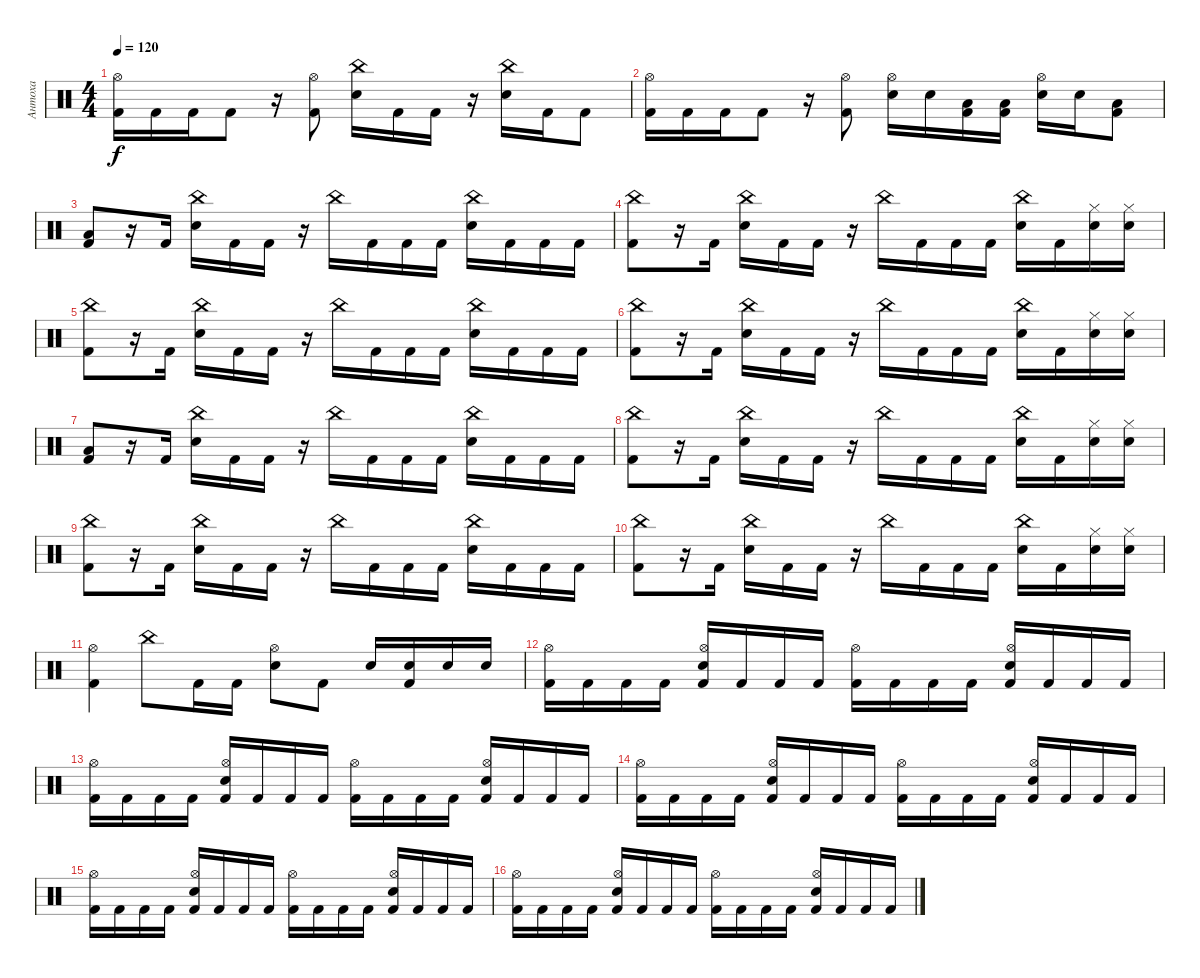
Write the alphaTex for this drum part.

\track ("Антоха" "Антоха") {instrument percussion}
\staff {score}
\articulation defaults
\ts (4 4)
\tempo 120
\clef neutral
\ks c
("Kick (hit) 2" "Hi-Hat (open)").16{dy f} "Kick (hit) 2".16 "Kick (hit) 2".16 "Kick (hit) 2".8 r.16 ("Kick (hit) 2" "Hi-Hat (open)").8 ("Electric Snare (hit)" "China (hit)").16 "Kick (hit) 2".16 "Kick (hit) 2".16 r.16 ("Electric Snare (hit)" "China (hit)").16 "Kick (hit) 2".16 "Kick (hit) 2".8 |
("Kick (hit) 2" "Hi-Hat (open)").16 "Kick (hit) 2".16 "Kick (hit) 2".16 "Kick (hit) 2".8 r.16 ("Kick (hit) 2" "Hi-Hat (open)").8 ("Electric Snare (hit)" "Hi-Hat (open)").16 "Electric Snare (hit)".16 ("Kick (hit) 2" "Low Floor Tom (hit)").16 ("Kick (hit) 2" "Low Floor Tom (hit)").16 ("Electric Snare (hit)" "Hi-Hat (open)").16 "Electric Snare (hit)".16 ("Kick (hit) 2" "Low Floor Tom (hit)").8 |
("Kick (hit) 2" "Low Floor Tom (hit)").8 r.16 "Kick (hit) 2".16 ("Electric Snare (hit)" "China (hit)").16 "Kick (hit) 2".16 "Kick (hit) 2".16 r.16 "China (hit)".16 "Kick (hit) 2".16 "Kick (hit) 2".16 "Kick (hit) 2".16 ("Electric Snare (hit)" "China (hit)").16 "Kick (hit) 2".16 "Kick (hit) 2".16 "Kick (hit) 2".16 |
("Kick (hit) 2" "China (hit)").8 r.16 "Kick (hit) 2".16 ("Electric Snare (hit)" "China (hit)").16 "Kick (hit) 2".16 "Kick (hit) 2".16 r.16 "China (hit)".16 "Kick (hit) 2".16 "Kick (hit) 2".16 "Kick (hit) 2".16 ("Electric Snare (hit)" "China (hit)").16 "Kick (hit) 2".16 ("Electric Snare (hit)" "Hi-Hat (closed)").16 ("Electric Snare (hit)" "Hi-Hat (closed)").16 |
("Kick (hit) 2" "China (hit)").8 r.16 "Kick (hit) 2".16 ("Electric Snare (hit)" "China (hit)").16 "Kick (hit) 2".16 "Kick (hit) 2".16 r.16 "China (hit)".16 "Kick (hit) 2".16 "Kick (hit) 2".16 "Kick (hit) 2".16 ("Electric Snare (hit)" "China (hit)").16 "Kick (hit) 2".16 "Kick (hit) 2".16 "Kick (hit) 2".16 |
("Kick (hit) 2" "China (hit)").8 r.16 "Kick (hit) 2".16 ("Electric Snare (hit)" "China (hit)").16 "Kick (hit) 2".16 "Kick (hit) 2".16 r.16 "China (hit)".16 "Kick (hit) 2".16 "Kick (hit) 2".16 "Kick (hit) 2".16 ("Electric Snare (hit)" "China (hit)").16 "Kick (hit) 2".16 ("Electric Snare (hit)" "Hi-Hat (closed)").16 ("Electric Snare (hit)" "Hi-Hat (closed)").16 |
("Kick (hit) 2" "Low Floor Tom (hit)").8 r.16 "Kick (hit) 2".16 ("Electric Snare (hit)" "China (hit)").16 "Kick (hit) 2".16 "Kick (hit) 2".16 r.16 "China (hit)".16 "Kick (hit) 2".16 "Kick (hit) 2".16 "Kick (hit) 2".16 ("Electric Snare (hit)" "China (hit)").16 "Kick (hit) 2".16 "Kick (hit) 2".16 "Kick (hit) 2".16 |
("Kick (hit) 2" "China (hit)").8 r.16 "Kick (hit) 2".16 ("Electric Snare (hit)" "China (hit)").16 "Kick (hit) 2".16 "Kick (hit) 2".16 r.16 "China (hit)".16 "Kick (hit) 2".16 "Kick (hit) 2".16 "Kick (hit) 2".16 ("Electric Snare (hit)" "China (hit)").16 "Kick (hit) 2".16 ("Electric Snare (hit)" "Hi-Hat (closed)").16 ("Electric Snare (hit)" "Hi-Hat (closed)").16 |
("Kick (hit) 2" "China (hit)").8 r.16 "Kick (hit) 2".16 ("Electric Snare (hit)" "China (hit)").16 "Kick (hit) 2".16 "Kick (hit) 2".16 r.16 "China (hit)".16 "Kick (hit) 2".16 "Kick (hit) 2".16 "Kick (hit) 2".16 ("Electric Snare (hit)" "China (hit)").16 "Kick (hit) 2".16 "Kick (hit) 2".16 "Kick (hit) 2".16 |
("Kick (hit) 2" "China (hit)").8 r.16 "Kick (hit) 2".16 ("Electric Snare (hit)" "China (hit)").16 "Kick (hit) 2".16 "Kick (hit) 2".16 r.16 "China (hit)".16 "Kick (hit) 2".16 "Kick (hit) 2".16 "Kick (hit) 2".16 ("Electric Snare (hit)" "China (hit)").16 "Kick (hit) 2".16 ("Electric Snare (hit)" "Hi-Hat (closed)").16 ("Electric Snare (hit)" "Hi-Hat (closed)").16 |
("Kick (hit) 2" "Hi-Hat (open)").4 "China (hit)".8 "Kick (hit) 2".16 "Kick (hit) 2".16 ("Electric Snare (hit)" "Hi-Hat (open)").8 "Kick (hit) 2".8 "Electric Snare (hit)".16 ("Kick (hit) 2" "Electric Snare (hit)").16 "Electric Snare (hit)".16 "Electric Snare (hit)".16 |
("Kick (hit) 2" "Hi-Hat (open)").16 "Kick (hit) 2".16 "Kick (hit) 2".16 "Kick (hit) 2".16 ("Kick (hit) 2" "Electric Snare (hit)" "Hi-Hat (open)").16 "Kick (hit) 2".16 "Kick (hit) 2".16 "Kick (hit) 2".16 ("Kick (hit) 2" "Hi-Hat (open)").16 "Kick (hit) 2".16 "Kick (hit) 2".16 "Kick (hit) 2".16 ("Kick (hit) 2" "Electric Snare (hit)" "Hi-Hat (open)").16 "Kick (hit) 2".16 "Kick (hit) 2".16 "Kick (hit) 2".16 |
("Kick (hit) 2" "Hi-Hat (open)").16 "Kick (hit) 2".16 "Kick (hit) 2".16 "Kick (hit) 2".16 ("Kick (hit) 2" "Electric Snare (hit)" "Hi-Hat (open)").16 "Kick (hit) 2".16 "Kick (hit) 2".16 "Kick (hit) 2".16 ("Kick (hit) 2" "Hi-Hat (open)").16 "Kick (hit) 2".16 "Kick (hit) 2".16 "Kick (hit) 2".16 ("Kick (hit) 2" "Electric Snare (hit)" "Hi-Hat (open)").16 "Kick (hit) 2".16 "Kick (hit) 2".16 "Kick (hit) 2".16 |
("Kick (hit) 2" "Hi-Hat (open)").16 "Kick (hit) 2".16 "Kick (hit) 2".16 "Kick (hit) 2".16 ("Kick (hit) 2" "Electric Snare (hit)" "Hi-Hat (open)").16 "Kick (hit) 2".16 "Kick (hit) 2".16 "Kick (hit) 2".16 ("Kick (hit) 2" "Hi-Hat (open)").16 "Kick (hit) 2".16 "Kick (hit) 2".16 "Kick (hit) 2".16 ("Kick (hit) 2" "Electric Snare (hit)" "Hi-Hat (open)").16 "Kick (hit) 2".16 "Kick (hit) 2".16 "Kick (hit) 2".16 |
("Kick (hit) 2" "Hi-Hat (open)").16 "Kick (hit) 2".16 "Kick (hit) 2".16 "Kick (hit) 2".16 ("Kick (hit) 2" "Electric Snare (hit)" "Hi-Hat (open)").16 "Kick (hit) 2".16 "Kick (hit) 2".16 "Kick (hit) 2".16 ("Kick (hit) 2" "Hi-Hat (open)").16 "Kick (hit) 2".16 "Kick (hit) 2".16 "Kick (hit) 2".16 ("Kick (hit) 2" "Electric Snare (hit)" "Hi-Hat (open)").16 "Kick (hit) 2".16 "Kick (hit) 2".16 "Kick (hit) 2".16 |
("Kick (hit) 2" "Hi-Hat (open)").16 "Kick (hit) 2".16 "Kick (hit) 2".16 "Kick (hit) 2".16 ("Kick (hit) 2" "Electric Snare (hit)" "Hi-Hat (open)").16 "Kick (hit) 2".16 "Kick (hit) 2".16 "Kick (hit) 2".16 ("Kick (hit) 2" "Hi-Hat (open)").16 "Kick (hit) 2".16 "Kick (hit) 2".16 "Kick (hit) 2".16 ("Kick (hit) 2" "Electric Snare (hit)" "Hi-Hat (open)").16 "Kick (hit) 2".16 "Kick (hit) 2".16 "Kick (hit) 2".16
